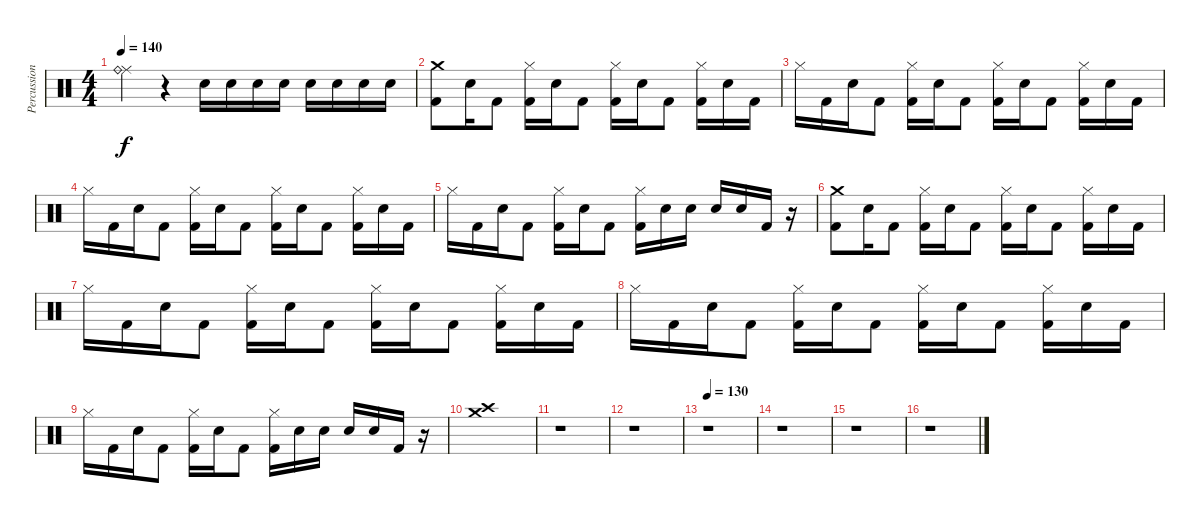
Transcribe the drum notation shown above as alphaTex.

\track ("Percussion" "Percussion") {instrument percussion}
\staff {score}
\articulation defaults
\ts (4 4)
\tempo 140
\clef neutral
\ks c
("Ride (middle)" "Ride (bell)").4{dy f} r.4 "Snare (hit) 2".16 "Snare (hit) 2".16 "Snare (hit) 2".16 "Snare (hit) 2".16 "Snare (hit) 2".16 "Snare (hit) 2".16 "Snare (hit) 2".16 "Snare (hit) 2".16 |
("Crash medium (hit)" "Kick (hit) 2").8 "Snare (hit) 2".16 "Kick (hit) 2".8 ("Hi-Hat (closed)" "Kick (hit) 2").16 "Snare (hit) 2".16 "Kick (hit) 2".8 ("Hi-Hat (closed)" "Kick (hit) 2").16 "Snare (hit) 2".16 "Kick (hit) 2".8 ("Hi-Hat (closed)" "Kick (hit) 2").16 "Snare (hit) 2".16 "Kick (hit) 2".16 |
"Hi-Hat (closed)".16 "Kick (hit) 2".16 "Snare (hit) 2".16 "Kick (hit) 2".8 ("Hi-Hat (closed)" "Kick (hit) 2").16 "Snare (hit) 2".16 "Kick (hit) 2".8 ("Hi-Hat (closed)" "Kick (hit) 2").16 "Snare (hit) 2".16 "Kick (hit) 2".8 ("Hi-Hat (closed)" "Kick (hit) 2").16 "Snare (hit) 2".16 "Kick (hit) 2".16 |
"Hi-Hat (closed)".16 "Kick (hit) 2".16 "Snare (hit) 2".16 "Kick (hit) 2".8 ("Hi-Hat (closed)" "Kick (hit) 2").16 "Snare (hit) 2".16 "Kick (hit) 2".8 ("Hi-Hat (closed)" "Kick (hit) 2").16 "Snare (hit) 2".16 "Kick (hit) 2".8 ("Hi-Hat (closed)" "Kick (hit) 2").16 "Snare (hit) 2".16 "Kick (hit) 2".16 |
"Hi-Hat (closed)".16 "Kick (hit) 2".16 "Snare (hit) 2".16 "Kick (hit) 2".8 ("Hi-Hat (closed)" "Kick (hit) 2").16 "Snare (hit) 2".16 "Kick (hit) 2".8 ("Hi-Hat (closed)" "Kick (hit) 2").16 "Snare (hit) 2".16 "Snare (hit) 2".16 "Snare (hit) 2".16 "Snare (hit) 2".16 "Kick (hit) 2".16 r.16 |
("Crash medium (hit)" "Kick (hit) 2").8 "Snare (hit) 2".16 "Kick (hit) 2".8 ("Hi-Hat (closed)" "Kick (hit) 2").16 "Snare (hit) 2".16 "Kick (hit) 2".8 ("Hi-Hat (closed)" "Kick (hit) 2").16 "Snare (hit) 2".16 "Kick (hit) 2".8 ("Hi-Hat (closed)" "Kick (hit) 2").16 "Snare (hit) 2".16 "Kick (hit) 2".16 |
"Hi-Hat (closed)".16 "Kick (hit) 2".16 "Snare (hit) 2".16 "Kick (hit) 2".8 ("Hi-Hat (closed)" "Kick (hit) 2").16 "Snare (hit) 2".16 "Kick (hit) 2".8 ("Hi-Hat (closed)" "Kick (hit) 2").16 "Snare (hit) 2".16 "Kick (hit) 2".8 ("Hi-Hat (closed)" "Kick (hit) 2").16 "Snare (hit) 2".16 "Kick (hit) 2".16 |
"Hi-Hat (closed)".16 "Kick (hit) 2".16 "Snare (hit) 2".16 "Kick (hit) 2".8 ("Hi-Hat (closed)" "Kick (hit) 2").16 "Snare (hit) 2".16 "Kick (hit) 2".8 ("Hi-Hat (closed)" "Kick (hit) 2").16 "Snare (hit) 2".16 "Kick (hit) 2".8 ("Hi-Hat (closed)" "Kick (hit) 2").16 "Snare (hit) 2".16 "Kick (hit) 2".16 |
"Hi-Hat (closed)".16 "Kick (hit) 2".16 "Snare (hit) 2".16 "Kick (hit) 2".8 ("Hi-Hat (closed)" "Kick (hit) 2").16 "Snare (hit) 2".16 "Kick (hit) 2".8 ("Hi-Hat (closed)" "Kick (hit) 2").16 "Snare (hit) 2".16 "Snare (hit) 2".16 "Snare (hit) 2".16 "Snare (hit) 2".16 "Kick (hit) 2".16 r.16 |
("Crash medium (hit)" "Crash high (hit)").1 |
r.1 |
r.1 |
\tempo 130
r.1 |
r.1 |
r.1 |
r.1
